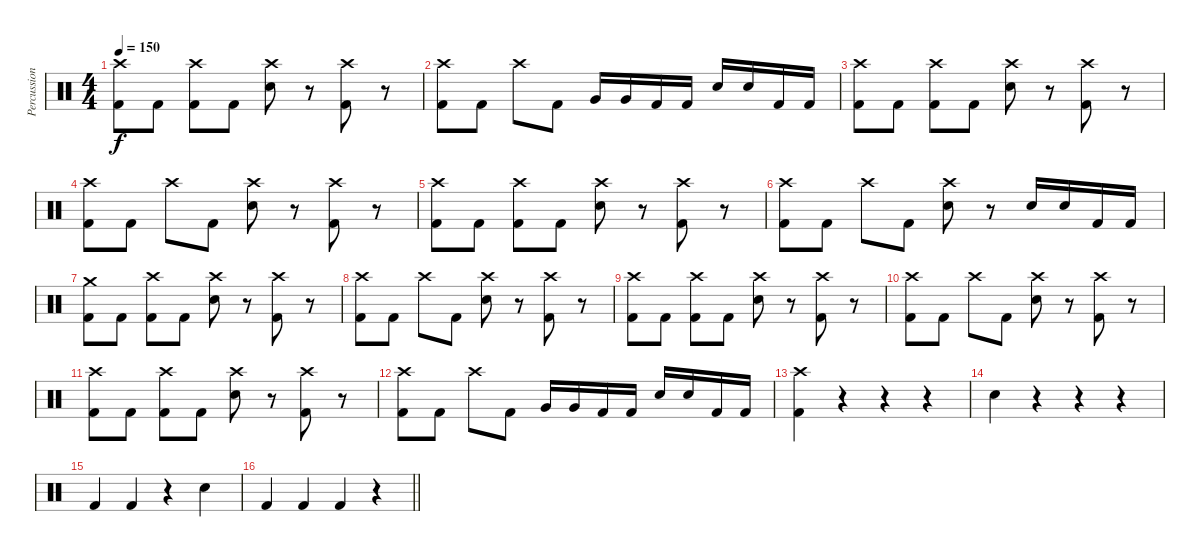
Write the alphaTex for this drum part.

\track ("Percussion" "Percussion") {instrument percussion}
\staff {score}
\articulation defaults
\ts (4 4)
\tempo 150
\clef neutral
\ks c
("Crash high (hit)" "Kick (hit) 2").8{dy f} "Kick (hit) 2".8 ("Crash high (hit)" "Kick (hit) 2").8 "Kick (hit) 2".8 ("Crash high (hit)" "Electric Snare (hit)").8 r.8 ("Crash high (hit)" "Kick (hit) 2").8 r.8 |
("Crash high (hit)" "Kick (hit) 2").8 "Kick (hit) 2".8 "Crash high (hit)".8 "Kick (hit) 2".8 "Very Low Tom (hit)".16 "Very Low Tom (hit)".16 "Kick (hit) 2".16 "Kick (hit) 2".16 "Electric Snare (hit)".16 "Electric Snare (hit)".16 "Kick (hit) 2".16 "Kick (hit) 2".16 |
("Crash high (hit)" "Kick (hit) 2").8 "Kick (hit) 2".8 ("Crash high (hit)" "Kick (hit) 2").8 "Kick (hit) 2".8 ("Crash high (hit)" "Electric Snare (hit)").8 r.8 ("Crash high (hit)" "Kick (hit) 2").8 r.8 |
("Crash high (hit)" "Kick (hit) 2").8 "Kick (hit) 2".8 "Crash high (hit)".8 "Kick (hit) 2".8 ("Crash high (hit)" "Electric Snare (hit)").8 r.8 ("Crash high (hit)" "Kick (hit) 2").8 r.8 |
("Crash high (hit)" "Kick (hit) 2").8 "Kick (hit) 2".8 ("Crash high (hit)" "Kick (hit) 2").8 "Kick (hit) 2".8 ("Crash high (hit)" "Electric Snare (hit)").8 r.8 ("Crash high (hit)" "Kick (hit) 2").8 r.8 |
("Crash high (hit)" "Kick (hit) 2").8 "Kick (hit) 2".8 "Crash high (hit)".8 "Kick (hit) 2".8 ("Crash high (hit)" "Electric Snare (hit)").8 r.8 "Electric Snare (hit)".16 "Electric Snare (hit)".16 "Kick (hit) 2".16 "Kick (hit) 2".16 |
("Crash medium (hit)" "Kick (hit) 2").8 "Kick (hit) 2".8 ("Crash high (hit)" "Kick (hit) 2").8 "Kick (hit) 2".8 ("Crash high (hit)" "Electric Snare (hit)").8 r.8 ("Crash high (hit)" "Kick (hit) 2").8 r.8 |
("Crash high (hit)" "Kick (hit) 2").8 "Kick (hit) 2".8 "Crash high (hit)".8 "Kick (hit) 2".8 ("Crash high (hit)" "Electric Snare (hit)").8 r.8 ("Crash high (hit)" "Kick (hit) 2").8 r.8 |
("Crash high (hit)" "Kick (hit) 2").8 "Kick (hit) 2".8 ("Crash high (hit)" "Kick (hit) 2").8 "Kick (hit) 2".8 ("Crash high (hit)" "Electric Snare (hit)").8 r.8 ("Crash high (hit)" "Kick (hit) 2").8 r.8 |
("Crash high (hit)" "Kick (hit) 2").8 "Kick (hit) 2".8 "Crash high (hit)".8 "Kick (hit) 2".8 ("Crash high (hit)" "Electric Snare (hit)").8 r.8 ("Crash high (hit)" "Kick (hit) 2").8 r.8 |
("Crash high (hit)" "Kick (hit) 2").8 "Kick (hit) 2".8 ("Crash high (hit)" "Kick (hit) 2").8 "Kick (hit) 2".8 ("Crash high (hit)" "Electric Snare (hit)").8 r.8 ("Crash high (hit)" "Kick (hit) 2").8 r.8 |
("Crash high (hit)" "Kick (hit) 2").8 "Kick (hit) 2".8 "Crash high (hit)".8 "Kick (hit) 2".8 "Very Low Tom (hit)".16 "Very Low Tom (hit)".16 "Kick (hit) 2".16 "Kick (hit) 2".16 "Electric Snare (hit)".16 "Electric Snare (hit)".16 "Kick (hit) 2".16 "Kick (hit) 2".16 |
("Crash high (hit)" "Kick (hit) 2").4 r.4 r.4 r.4 |
"Electric Snare (hit)".4 r.4 r.4 r.4 |
"Kick (hit) 2".4 "Kick (hit) 2".4 r.4 "Electric Snare (hit)".4 |
\barLineRight lightlight "Kick (hit) 2".4 "Kick (hit) 2".4 "Kick (hit) 2".4
r.4
